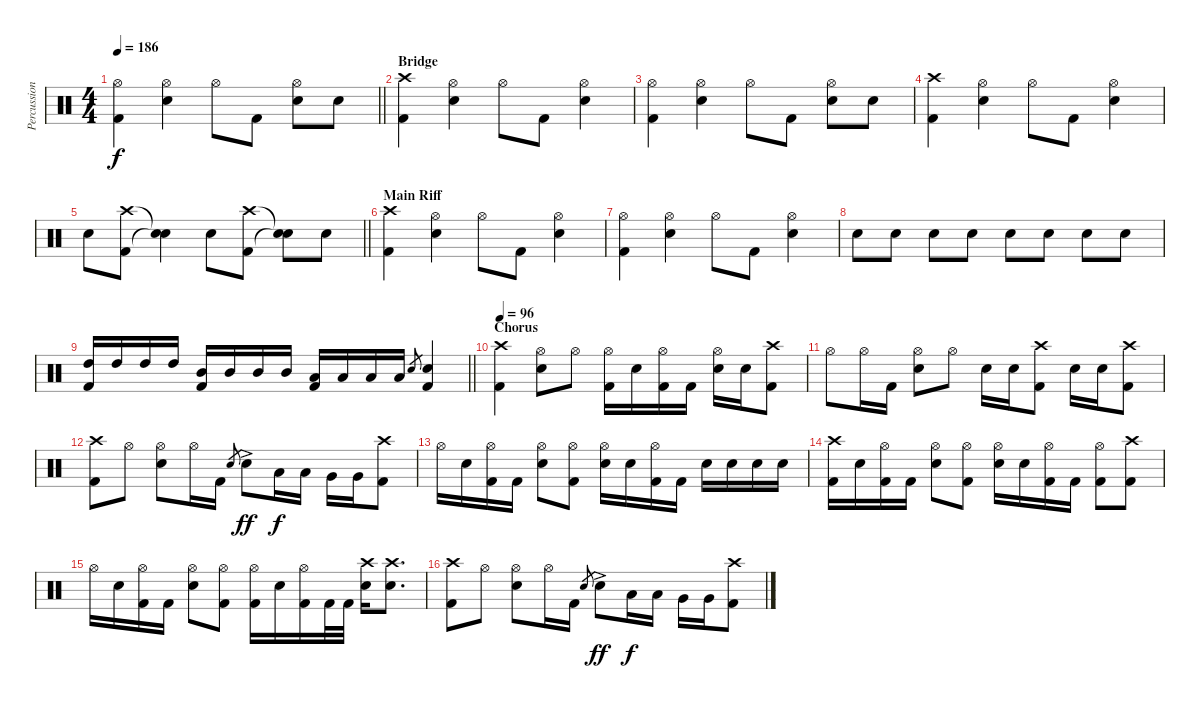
\track ("Percussion" "Percussion") {instrument percussion}
\staff {score}
\articulation defaults
\ts (4 4)
\tempo 186
\clef neutral
\barLineRight lightlight
\ks c
("Hi-Hat (open)" "Kick (hit) 2").4{dy f} ("Hi-Hat (open)" "Snare (hit) 2").4 "Hi-Hat (open)".8 "Kick (hit) 2".8 ("Hi-Hat (open)" "Snare (hit) 2").8 "Snare (hit) 2".8 |
\section ("" "Bridge")
("Crash high (hit)" "Kick (hit) 2").4 ("Hi-Hat (open)" "Snare (hit) 2").4 "Hi-Hat (open)".8 "Kick (hit) 2".8 ("Hi-Hat (open)" "Snare (hit) 2").4 |
("Hi-Hat (open)" "Kick (hit) 2").4 ("Hi-Hat (open)" "Snare (hit) 2").4 "Hi-Hat (open)".8 "Kick (hit) 2".8 ("Hi-Hat (open)" "Snare (hit) 2").8 "Snare (hit) 2".8 |
("Crash high (hit)" "Kick (hit) 2").4 ("Hi-Hat (open)" "Snare (hit) 2").4 "Hi-Hat (open)".8 "Kick (hit) 2".8 ("Hi-Hat (open)" "Snare (hit) 2").4 |
\barLineRight lightlight "Snare (hit) 2".8
("Crash high (hit)" "Kick (hit) 2").8 ("Snare (hit)"{t} "Snare (hit)"{t}).4 "Snare (hit) 2".8 ("Crash high (hit)" "Kick (hit) 2").8 ("Snare (hit)"{t} "Snare (hit)"{t}).8 "Snare (hit) 2".8 |
\section ("" "Main Riff")
("Crash high (hit)" "Kick (hit) 2").4 ("Hi-Hat (open)" "Snare (hit) 2").4 "Hi-Hat (open)".8 "Kick (hit) 2".8 ("Hi-Hat (open)" "Snare (hit) 2").4 |
("Hi-Hat (open)" "Kick (hit) 2").4 ("Hi-Hat (open)" "Snare (hit) 2").4 "Hi-Hat (open)".8 "Kick (hit) 2".8 ("Hi-Hat (open)" "Snare (hit) 2").4 |
"Snare (hit) 2".8 "Snare (hit) 2".8 "Snare (hit) 2".8 "Snare (hit) 2".8 "Snare (hit) 2".8 "Snare (hit) 2".8 "Snare (hit) 2".8 "Snare (hit) 2".8 |
\barLineRight lightlight
("High Tom (hit)" "Kick (hit) 2").16 "High Tom (hit)".16 "High Tom (hit)".16 "High Tom (hit)".16 ("Mid Tom (hit)" "Kick (hit) 2").16 "Mid Tom (hit)".16 "Mid Tom (hit)".16 "Mid Tom (hit)".16 ("Low Tom (hit)" "Kick (hit) 2").16 "Low Tom (hit)".16 "Low Tom (hit)".16 "Low Tom (hit)".16 "Snare (hit) 2".8{gr} ("Snare (hit) 2" "Kick (hit) 2").4 |
\section ("" "Chorus")
\tempo 96
("Crash high (hit)" "Kick (hit) 2").4 ("Hi-Hat (open)" "Snare (hit) 2").8 "Hi-Hat (open)".8 ("Hi-Hat (open)" "Kick (hit) 2").16 "Snare (hit) 2".16 ("Hi-Hat (open)" "Kick (hit) 2").16 "Kick (hit) 2".16 ("Hi-Hat (open)" "Snare (hit) 2").16 "Snare (hit) 2".16 ("Crash high (hit)" "Kick (hit) 2").8 |
"Hi-Hat (open)".8 "Hi-Hat (open)".16 "Kick (hit) 2".16 ("Hi-Hat (open)" "Snare (hit) 2").8 "Hi-Hat (open)".8 "Snare (hit) 2".16 "Snare (hit) 2".16 ("Crash high (hit)" "Kick (hit) 2").8 "Snare (hit) 2".16 "Snare (hit) 2".16 ("Crash high (hit)" "Kick (hit) 2").8 |
("Crash high (hit)" "Kick (hit) 2").8 "Hi-Hat (open)".8 ("Hi-Hat (open)" "Snare (hit) 2").8 "Hi-Hat (open)".16 "Kick (hit) 2".16 "Snare (hit) 2".8{gr} "Snare (hit) 2"{ac}.8{dy ff} "Low Tom (hit)".16{dy f} "Low Tom (hit)".16 "Very Low Tom (hit)".16 "Very Low Tom (hit)".16 ("Crash high (hit)" "Kick (hit) 2").8 |
"Hi-Hat (open)".16 "Snare (hit) 2".16 ("Hi-Hat (open)" "Kick (hit) 2").16 "Kick (hit) 2".16 ("Hi-Hat (open)" "Snare (hit) 2").8 ("Hi-Hat (open)" "Kick (hit) 2").8 ("Hi-Hat (open)" "Snare (hit) 2").16 "Snare (hit) 2".16 ("Hi-Hat (open)" "Kick (hit) 2").16 "Kick (hit) 2".16 "Snare (hit) 2".16 "Snare (hit) 2".16 "Snare (hit) 2".16 "Snare (hit) 2".16 |
("Crash high (hit)" "Kick (hit) 2").16 "Snare (hit) 2".16 ("Hi-Hat (open)" "Kick (hit) 2").16 "Kick (hit) 2".16 ("Hi-Hat (open)" "Snare (hit) 2").8 ("Hi-Hat (open)" "Kick (hit) 2").8 ("Hi-Hat (open)" "Snare (hit) 2").16 "Snare (hit) 2".16 ("Hi-Hat (open)" "Kick (hit) 2").16 "Kick (hit) 2".16 ("Hi-Hat (open)" "Kick (hit) 2").8 ("Crash high (hit)" "Kick (hit) 2").8 |
"Hi-Hat (open)".16 "Snare (hit) 2".16 ("Hi-Hat (open)" "Kick (hit) 2").16 "Kick (hit) 2".16 ("Hi-Hat (open)" "Snare (hit) 2").8 ("Hi-Hat (open)" "Kick (hit) 2").8 ("Hi-Hat (open)" "Kick (hit) 2").16 "Snare (hit) 2".16 ("Hi-Hat (open)" "Kick (hit) 2").16 "Kick (hit) 2".32 "Kick (hit) 2".32 ("Crash high (hit)" "Snare (hit) 2").16 ("Crash high (hit)" "Snare (hit) 2").8{d} |
("Crash high (hit)" "Kick (hit) 2").8 "Hi-Hat (open)".8 ("Hi-Hat (open)" "Snare (hit) 2").8 "Hi-Hat (open)".16 "Kick (hit) 2".16 "Snare (hit) 2".8{gr} "Snare (hit) 2"{ac}.8{dy ff} "Low Tom (hit)".16{dy f} "Low Tom (hit)".16 "Very Low Tom (hit)".16 "Very Low Tom (hit)".16 ("Crash high (hit)" "Kick (hit) 2").8
